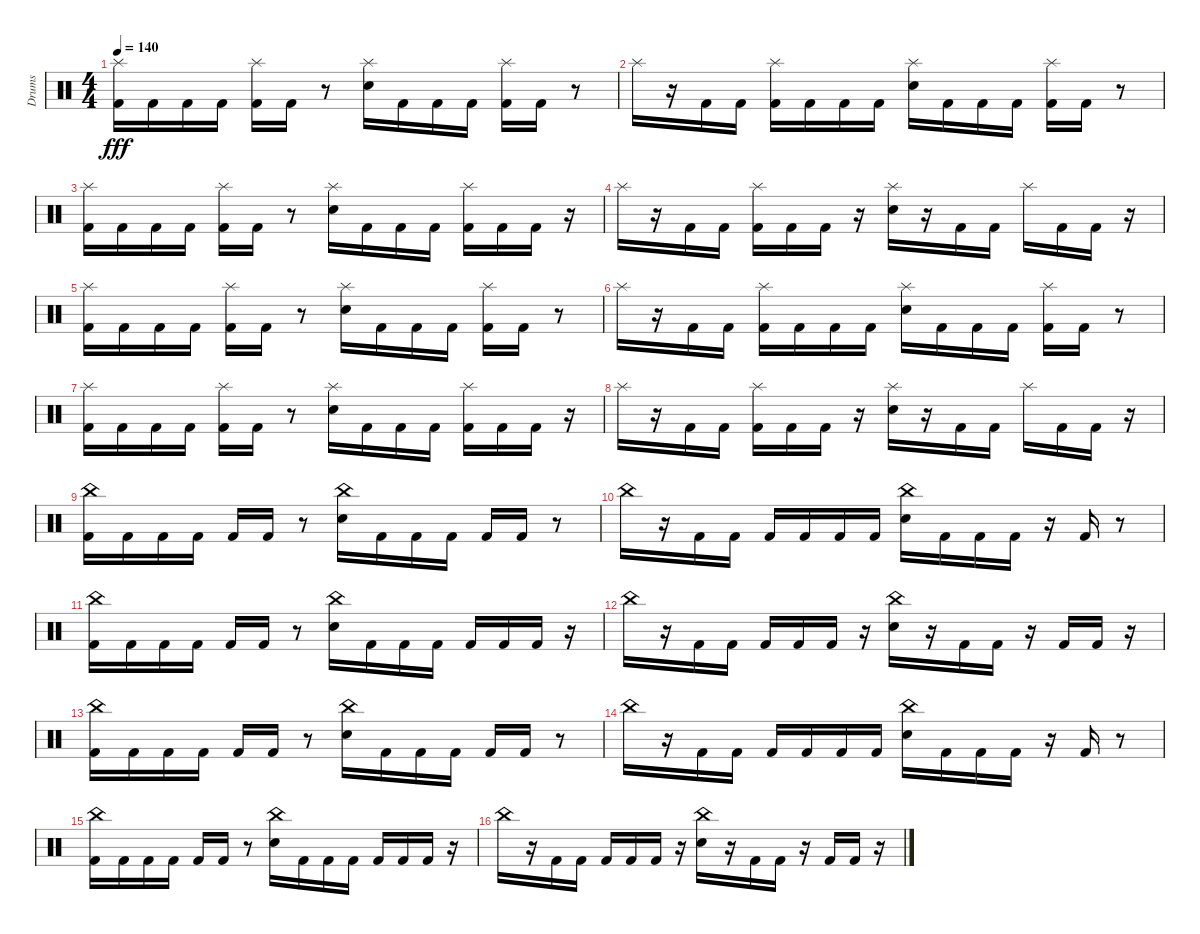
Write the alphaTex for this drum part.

\track ("Drums" "Drums") {instrument percussion}
\staff {score}
\articulation defaults
\ts (4 4)
\tempo 140
\clef neutral
\ks c
("Kick (hit) 2" "Splash (hit)").16{dy fff} "Kick (hit) 2".16 "Kick (hit) 2".16 "Kick (hit) 2".16 ("Kick (hit) 2" "Splash (hit)").16 "Kick (hit) 2".16 r.8 ("Snare (hit) 2" "Splash (hit)").16 "Kick (hit) 2".16 "Kick (hit) 2".16 "Kick (hit) 2".16 ("Kick (hit) 2" "Splash (hit)").16 "Kick (hit) 2".16 r.8 |
"Splash (hit)".16 r.16 "Kick (hit) 2".16 "Kick (hit) 2".16 ("Kick (hit) 2" "Splash (hit)").16 "Kick (hit) 2".16 "Kick (hit) 2".16 "Kick (hit) 2".16 ("Snare (hit) 2" "Splash (hit)").16 "Kick (hit) 2".16 "Kick (hit) 2".16 "Kick (hit) 2".16 ("Kick (hit) 2" "Splash (hit)").16 "Kick (hit) 2".16 r.8 |
("Kick (hit) 2" "Splash (hit)").16 "Kick (hit) 2".16 "Kick (hit) 2".16 "Kick (hit) 2".16 ("Kick (hit) 2" "Splash (hit)").16 "Kick (hit) 2".16 r.8 ("Snare (hit) 2" "Splash (hit)").16 "Kick (hit) 2".16 "Kick (hit) 2".16 "Kick (hit) 2".16 ("Kick (hit) 2" "Splash (hit)").16 "Kick (hit) 2".16 "Kick (hit) 2".16 r.16 |
"Splash (hit)".16 r.16 "Kick (hit) 2".16 "Kick (hit) 2".16 ("Kick (hit) 2" "Splash (hit)").16 "Kick (hit) 2".16 "Kick (hit) 2".16 r.16 ("Snare (hit) 2" "Splash (hit)").16 r.16 "Kick (hit) 2".16 "Kick (hit) 2".16 "Splash (hit)".16 "Kick (hit) 2".16 "Kick (hit) 2".16 r.16 |
("Kick (hit) 2" "Splash (hit)").16 "Kick (hit) 2".16 "Kick (hit) 2".16 "Kick (hit) 2".16 ("Kick (hit) 2" "Splash (hit)").16 "Kick (hit) 2".16 r.8 ("Snare (hit) 2" "Splash (hit)").16 "Kick (hit) 2".16 "Kick (hit) 2".16 "Kick (hit) 2".16 ("Kick (hit) 2" "Splash (hit)").16 "Kick (hit) 2".16 r.8 |
"Splash (hit)".16 r.16 "Kick (hit) 2".16 "Kick (hit) 2".16 ("Kick (hit) 2" "Splash (hit)").16 "Kick (hit) 2".16 "Kick (hit) 2".16 "Kick (hit) 2".16 ("Snare (hit) 2" "Splash (hit)").16 "Kick (hit) 2".16 "Kick (hit) 2".16 "Kick (hit) 2".16 ("Kick (hit) 2" "Splash (hit)").16 "Kick (hit) 2".16 r.8 |
("Kick (hit) 2" "Splash (hit)").16 "Kick (hit) 2".16 "Kick (hit) 2".16 "Kick (hit) 2".16 ("Kick (hit) 2" "Splash (hit)").16 "Kick (hit) 2".16 r.8 ("Snare (hit) 2" "Splash (hit)").16 "Kick (hit) 2".16 "Kick (hit) 2".16 "Kick (hit) 2".16 ("Kick (hit) 2" "Splash (hit)").16 "Kick (hit) 2".16 "Kick (hit) 2".16 r.16 |
"Splash (hit)".16 r.16 "Kick (hit) 2".16 "Kick (hit) 2".16 ("Kick (hit) 2" "Splash (hit)").16 "Kick (hit) 2".16 "Kick (hit) 2".16 r.16 ("Snare (hit) 2" "Splash (hit)").16 r.16 "Kick (hit) 2".16 "Kick (hit) 2".16 "Splash (hit)".16 "Kick (hit) 2".16 "Kick (hit) 2".16 r.16 |
("Kick (hit) 2" "China (hit)").16 "Kick (hit) 2".16 "Kick (hit) 2".16 "Kick (hit) 2".16 "Kick (hit) 2".16 "Kick (hit) 2".16 r.8 ("Snare (hit) 2" "China (hit)").16 "Kick (hit) 2".16 "Kick (hit) 2".16 "Kick (hit) 2".16 "Kick (hit) 2".16 "Kick (hit) 2".16 r.8 |
"China (hit)".16 r.16 "Kick (hit) 2".16 "Kick (hit) 2".16 "Kick (hit) 2".16 "Kick (hit) 2".16 "Kick (hit) 2".16 "Kick (hit) 2".16 ("Snare (hit) 2" "China (hit)").16 "Kick (hit) 2".16 "Kick (hit) 2".16 "Kick (hit) 2".16 r.16 "Kick (hit) 2".16 r.8 |
("Kick (hit) 2" "China (hit)").16 "Kick (hit) 2".16 "Kick (hit) 2".16 "Kick (hit) 2".16 "Kick (hit) 2".16 "Kick (hit) 2".16 r.8 ("Snare (hit) 2" "China (hit)").16 "Kick (hit) 2".16 "Kick (hit) 2".16 "Kick (hit) 2".16 "Kick (hit) 2".16 "Kick (hit) 2".16 "Kick (hit) 2".16 r.16 |
"China (hit)".16 r.16 "Kick (hit) 2".16 "Kick (hit) 2".16 "Kick (hit) 2".16 "Kick (hit) 2".16 "Kick (hit) 2".16 r.16 ("Snare (hit) 2" "China (hit)").16 r.16 "Kick (hit) 2".16 "Kick (hit) 2".16 r.16 "Kick (hit) 2".16 "Kick (hit) 2".16 r.16 |
("Kick (hit) 2" "China (hit)").16 "Kick (hit) 2".16 "Kick (hit) 2".16 "Kick (hit) 2".16 "Kick (hit) 2".16 "Kick (hit) 2".16 r.8 ("Snare (hit) 2" "China (hit)").16 "Kick (hit) 2".16 "Kick (hit) 2".16 "Kick (hit) 2".16 "Kick (hit) 2".16 "Kick (hit) 2".16 r.8 |
"China (hit)".16 r.16 "Kick (hit) 2".16 "Kick (hit) 2".16 "Kick (hit) 2".16 "Kick (hit) 2".16 "Kick (hit) 2".16 "Kick (hit) 2".16 ("Snare (hit) 2" "China (hit)").16 "Kick (hit) 2".16 "Kick (hit) 2".16 "Kick (hit) 2".16 r.16 "Kick (hit) 2".16 r.8 |
("Kick (hit) 2" "China (hit)").16 "Kick (hit) 2".16 "Kick (hit) 2".16 "Kick (hit) 2".16 "Kick (hit) 2".16 "Kick (hit) 2".16 r.8 ("Snare (hit) 2" "China (hit)").16 "Kick (hit) 2".16 "Kick (hit) 2".16 "Kick (hit) 2".16 "Kick (hit) 2".16 "Kick (hit) 2".16 "Kick (hit) 2".16 r.16 |
"China (hit)".16 r.16 "Kick (hit) 2".16 "Kick (hit) 2".16 "Kick (hit) 2".16 "Kick (hit) 2".16 "Kick (hit) 2".16 r.16 ("Snare (hit) 2" "China (hit)").16 r.16 "Kick (hit) 2".16 "Kick (hit) 2".16 r.16 "Kick (hit) 2".16 "Kick (hit) 2".16 r.16
